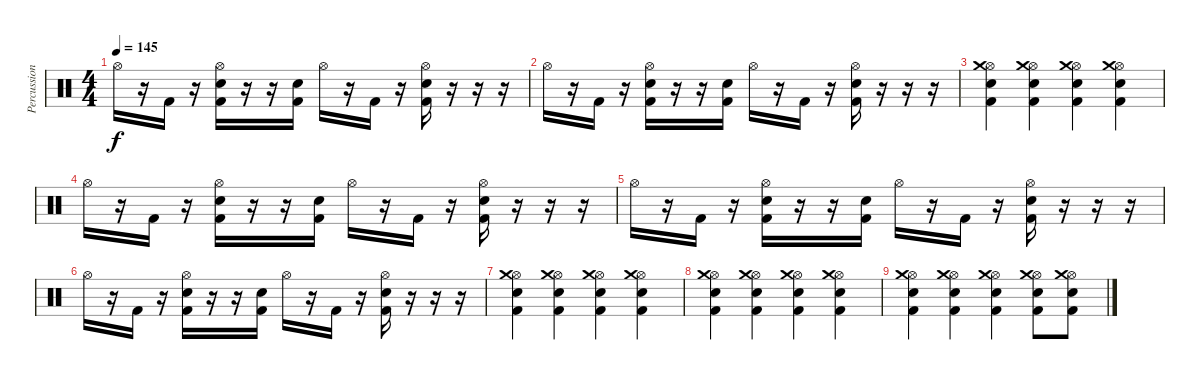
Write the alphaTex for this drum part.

\track ("Percussions" "Percussion") {instrument percussion}
\staff {score}
\articulation defaults
\ts (4 4)
\tempo 145
\clef neutral
\ks c "Hi-Hat (open)".16{dy f}
r.16 "Kick (hit) 2".16 r.16 ("Hi-Hat (open)" "Electric Snare (hit)" "Kick (hit) 2").16 r.16 r.16 ("Electric Snare (hit)" "Kick (hit) 2").16 "Hi-Hat (open)".16 r.16 "Kick (hit) 2".16 r.16 ("Hi-Hat (open)" "Electric Snare (hit)" "Kick (hit) 2").16 r.16 r.16 r.16 |
"Hi-Hat (open)".16 r.16 "Kick (hit) 2".16 r.16 ("Hi-Hat (open)" "Electric Snare (hit)" "Kick (hit) 2").16 r.16 r.16 ("Electric Snare (hit)" "Kick (hit) 2").16 "Hi-Hat (open)".16 r.16 "Kick (hit) 2".16 r.16 ("Hi-Hat (open)" "Electric Snare (hit)" "Kick (hit) 2").16 r.16 r.16 r.16 |
("Hi-Hat (open)" "Electric Snare (hit)" "Crash medium (hit)" "Kick (hit) 2").4 ("Hi-Hat (open)" "Electric Snare (hit)" "Crash medium (hit)" "Kick (hit) 2").4 ("Hi-Hat (open)" "Electric Snare (hit)" "Crash medium (hit)" "Kick (hit) 2").4 ("Hi-Hat (open)" "Electric Snare (hit)" "Crash medium (hit)" "Kick (hit) 2").4 |
"Hi-Hat (open)".16 r.16 "Kick (hit) 2".16 r.16 ("Hi-Hat (open)" "Electric Snare (hit)" "Kick (hit) 2").16 r.16 r.16 ("Electric Snare (hit)" "Kick (hit) 2").16 "Hi-Hat (open)".16 r.16 "Kick (hit) 2".16 r.16 ("Hi-Hat (open)" "Electric Snare (hit)" "Kick (hit) 2").16 r.16 r.16 r.16 |
"Hi-Hat (open)".16 r.16 "Kick (hit) 2".16 r.16 ("Hi-Hat (open)" "Electric Snare (hit)" "Kick (hit) 2").16 r.16 r.16 ("Electric Snare (hit)" "Kick (hit) 2").16 "Hi-Hat (open)".16 r.16 "Kick (hit) 2".16 r.16 ("Hi-Hat (open)" "Electric Snare (hit)" "Kick (hit) 2").16 r.16 r.16 r.16 |
"Hi-Hat (open)".16 r.16 "Kick (hit) 2".16 r.16 ("Hi-Hat (open)" "Electric Snare (hit)" "Kick (hit) 2").16 r.16 r.16 ("Electric Snare (hit)" "Kick (hit) 2").16 "Hi-Hat (open)".16 r.16 "Kick (hit) 2".16 r.16 ("Hi-Hat (open)" "Electric Snare (hit)" "Kick (hit) 2").16 r.16 r.16 r.16 |
("Hi-Hat (open)" "Electric Snare (hit)" "Crash medium (hit)" "Kick (hit) 2").4 ("Hi-Hat (open)" "Electric Snare (hit)" "Crash medium (hit)" "Kick (hit) 2").4 ("Hi-Hat (open)" "Electric Snare (hit)" "Crash medium (hit)" "Kick (hit) 2").4 ("Hi-Hat (open)" "Electric Snare (hit)" "Crash medium (hit)" "Kick (hit) 2").4 |
("Hi-Hat (open)" "Electric Snare (hit)" "Crash medium (hit)" "Kick (hit) 2").4 ("Hi-Hat (open)" "Electric Snare (hit)" "Crash medium (hit)" "Kick (hit) 2").4 ("Hi-Hat (open)" "Electric Snare (hit)" "Crash medium (hit)" "Kick (hit) 2").4 ("Hi-Hat (open)" "Electric Snare (hit)" "Crash medium (hit)" "Kick (hit) 2").4 |
("Hi-Hat (open)" "Electric Snare (hit)" "Crash medium (hit)" "Kick (hit) 2").4 ("Hi-Hat (open)" "Electric Snare (hit)" "Crash medium (hit)" "Kick (hit) 2").4 ("Hi-Hat (open)" "Electric Snare (hit)" "Crash medium (hit)" "Kick (hit) 2").4 ("Hi-Hat (open)" "Electric Snare (hit)" "Crash medium (hit)" "Kick (hit) 2").8 ("Hi-Hat (open)" "Electric Snare (hit)" "Crash medium (hit)" "Kick (hit) 2").8
